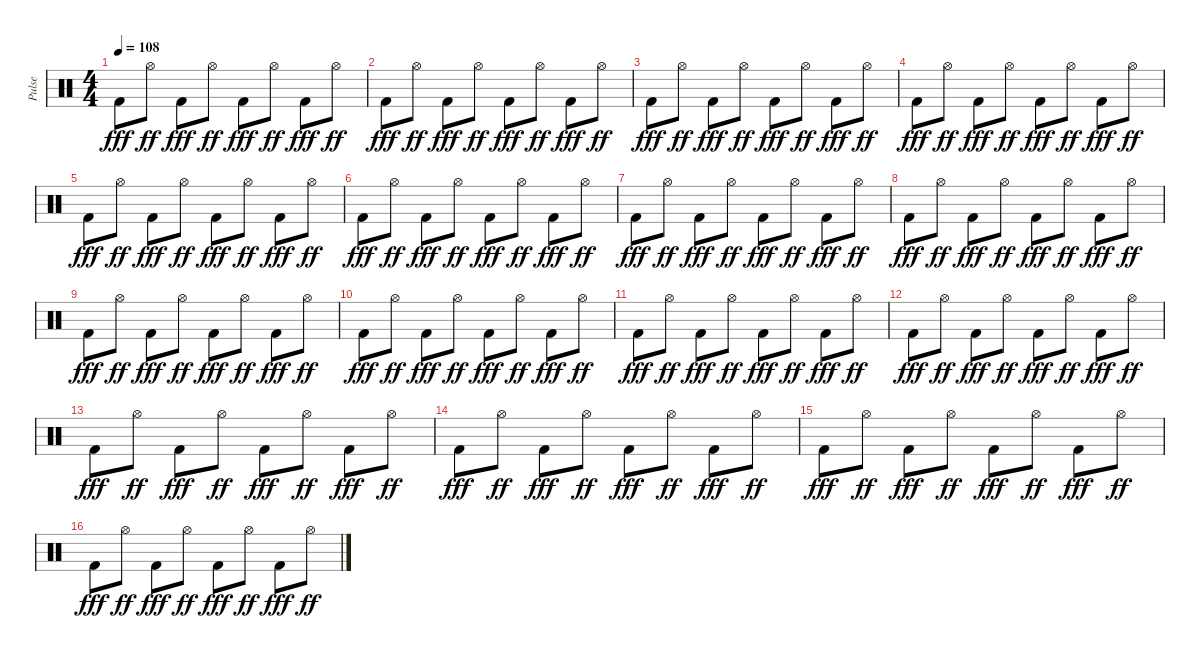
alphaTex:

\track ("Pulse" "Pulse") {instrument percussion}
\staff {score}
\articulation defaults
\ts (4 4)
\tempo 108
\clef neutral
\ks c "Kick (hit) 2".8{dy fff} "Hi-Hat (open)".8{dy ff} "Kick (hit) 2".8{dy fff} "Hi-Hat (open)".8{dy ff} "Kick (hit) 2".8{dy fff} "Hi-Hat (open)".8{dy ff} "Kick (hit) 2".8{dy fff} "Hi-Hat (open)".8{dy ff}
|
"Kick (hit) 2".8{dy fff} "Hi-Hat (open)".8{dy ff} "Kick (hit) 2".8{dy fff} "Hi-Hat (open)".8{dy ff} "Kick (hit) 2".8{dy fff} "Hi-Hat (open)".8{dy ff} "Kick (hit) 2".8{dy fff} "Hi-Hat (open)".8{dy ff} |
"Kick (hit) 2".8{dy fff} "Hi-Hat (open)".8{dy ff} "Kick (hit) 2".8{dy fff} "Hi-Hat (open)".8{dy ff} "Kick (hit) 2".8{dy fff} "Hi-Hat (open)".8{dy ff} "Kick (hit) 2".8{dy fff} "Hi-Hat (open)".8{dy ff} |
"Kick (hit) 2".8{dy fff} "Hi-Hat (open)".8{dy ff} "Kick (hit) 2".8{dy fff} "Hi-Hat (open)".8{dy ff} "Kick (hit) 2".8{dy fff} "Hi-Hat (open)".8{dy ff} "Kick (hit) 2".8{dy fff} "Hi-Hat (open)".8{dy ff} |
"Kick (hit) 2".8{dy fff} "Hi-Hat (open)".8{dy ff} "Kick (hit) 2".8{dy fff} "Hi-Hat (open)".8{dy ff} "Kick (hit) 2".8{dy fff} "Hi-Hat (open)".8{dy ff} "Kick (hit) 2".8{dy fff} "Hi-Hat (open)".8{dy ff} |
"Kick (hit) 2".8{dy fff} "Hi-Hat (open)".8{dy ff} "Kick (hit) 2".8{dy fff} "Hi-Hat (open)".8{dy ff} "Kick (hit) 2".8{dy fff} "Hi-Hat (open)".8{dy ff} "Kick (hit) 2".8{dy fff} "Hi-Hat (open)".8{dy ff} |
"Kick (hit) 2".8{dy fff} "Hi-Hat (open)".8{dy ff} "Kick (hit) 2".8{dy fff} "Hi-Hat (open)".8{dy ff} "Kick (hit) 2".8{dy fff} "Hi-Hat (open)".8{dy ff} "Kick (hit) 2".8{dy fff} "Hi-Hat (open)".8{dy ff} |
"Kick (hit) 2".8{dy fff} "Hi-Hat (open)".8{dy ff} "Kick (hit) 2".8{dy fff} "Hi-Hat (open)".8{dy ff} "Kick (hit) 2".8{dy fff} "Hi-Hat (open)".8{dy ff} "Kick (hit) 2".8{dy fff} "Hi-Hat (open)".8{dy ff} |
"Kick (hit) 2".8{dy fff} "Hi-Hat (open)".8{dy ff} "Kick (hit) 2".8{dy fff} "Hi-Hat (open)".8{dy ff} "Kick (hit) 2".8{dy fff} "Hi-Hat (open)".8{dy ff} "Kick (hit) 2".8{dy fff} "Hi-Hat (open)".8{dy ff} |
"Kick (hit) 2".8{dy fff} "Hi-Hat (open)".8{dy ff} "Kick (hit) 2".8{dy fff} "Hi-Hat (open)".8{dy ff} "Kick (hit) 2".8{dy fff} "Hi-Hat (open)".8{dy ff} "Kick (hit) 2".8{dy fff} "Hi-Hat (open)".8{dy ff} |
"Kick (hit) 2".8{dy fff} "Hi-Hat (open)".8{dy ff} "Kick (hit) 2".8{dy fff} "Hi-Hat (open)".8{dy ff} "Kick (hit) 2".8{dy fff} "Hi-Hat (open)".8{dy ff} "Kick (hit) 2".8{dy fff} "Hi-Hat (open)".8{dy ff} |
"Kick (hit) 2".8{dy fff} "Hi-Hat (open)".8{dy ff} "Kick (hit) 2".8{dy fff} "Hi-Hat (open)".8{dy ff} "Kick (hit) 2".8{dy fff} "Hi-Hat (open)".8{dy ff} "Kick (hit) 2".8{dy fff} "Hi-Hat (open)".8{dy ff} |
"Kick (hit) 2".8{dy fff} "Hi-Hat (open)".8{dy ff} "Kick (hit) 2".8{dy fff} "Hi-Hat (open)".8{dy ff} "Kick (hit) 2".8{dy fff} "Hi-Hat (open)".8{dy ff} "Kick (hit) 2".8{dy fff} "Hi-Hat (open)".8{dy ff} |
"Kick (hit) 2".8{dy fff} "Hi-Hat (open)".8{dy ff} "Kick (hit) 2".8{dy fff} "Hi-Hat (open)".8{dy ff} "Kick (hit) 2".8{dy fff} "Hi-Hat (open)".8{dy ff} "Kick (hit) 2".8{dy fff} "Hi-Hat (open)".8{dy ff} |
"Kick (hit) 2".8{dy fff} "Hi-Hat (open)".8{dy ff} "Kick (hit) 2".8{dy fff} "Hi-Hat (open)".8{dy ff} "Kick (hit) 2".8{dy fff} "Hi-Hat (open)".8{dy ff} "Kick (hit) 2".8{dy fff} "Hi-Hat (open)".8{dy ff} |
"Kick (hit) 2".8{dy fff} "Hi-Hat (open)".8{dy ff} "Kick (hit) 2".8{dy fff} "Hi-Hat (open)".8{dy ff} "Kick (hit) 2".8{dy fff} "Hi-Hat (open)".8{dy ff} "Kick (hit) 2".8{dy fff} "Hi-Hat (open)".8{dy ff}
